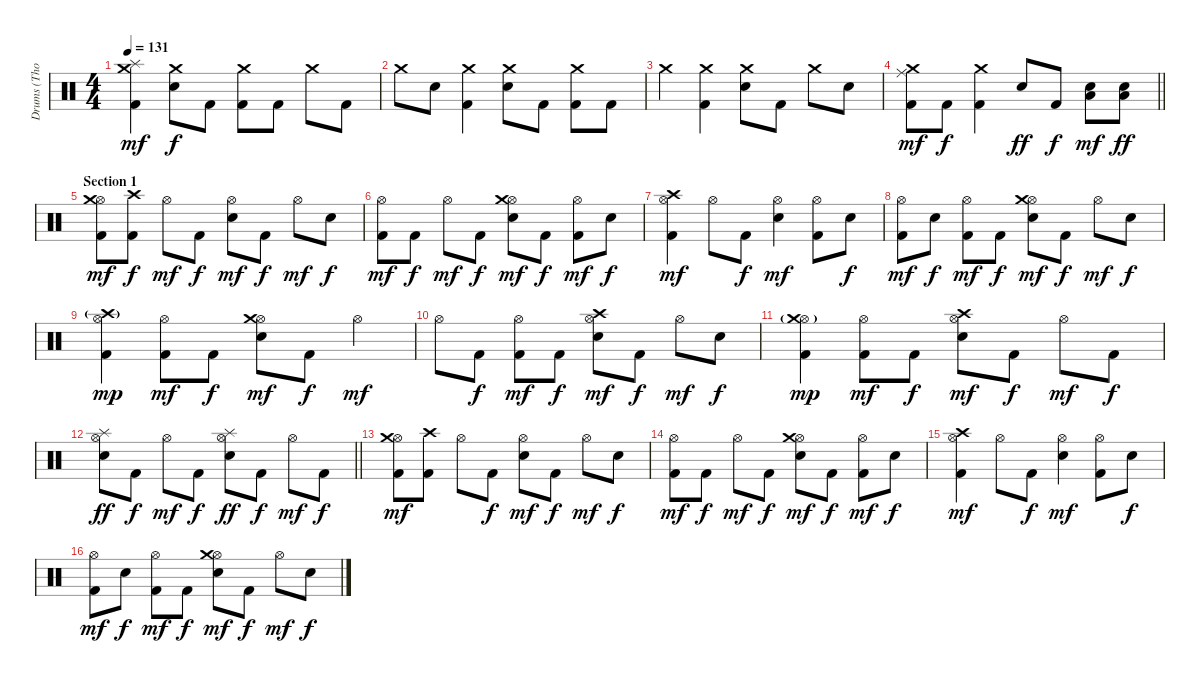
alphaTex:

\track ("Drums (Thomas Haake)" "Drums (Tho") {instrument percussion}
\staff {score}
\articulation defaults
\ts (4 4)
\tempo 131
\clef neutral
\ks c
("Crash medium (hit)" "Splash (hit)" "Kick (hit) 2").4{dy mf} ("Crash medium (hit)" "Electric Snare (hit)").8{dy f} "Kick (hit) 2".8 ("Crash medium (hit)" "Kick (hit) 2").8 "Kick (hit) 2".8 "Crash medium (hit)".8 "Kick (hit) 2".8 |
"Crash medium (hit)".8 "Electric Snare (hit)".8 ("Crash medium (hit)" "Kick (hit) 2").4 ("Crash medium (hit)" "Electric Snare (hit)").8 "Kick (hit) 2".8 ("Crash medium (hit)" "Kick (hit) 2").8 "Kick (hit) 2".8 |
"Crash medium (hit)".4 ("Crash medium (hit)" "Kick (hit) 2").4 ("Crash medium (hit)" "Electric Snare (hit)").8 "Kick (hit) 2".8 "Crash medium (hit)".8 "Electric Snare (hit)".8 |
\barLineRight lightlight
("Crash medium (hit)" "Ride (middle)" "Kick (hit) 2").8{dy mf} "Kick (hit) 2".8{dy f} ("Crash medium (hit)" "Kick (hit) 2").4 "Electric Snare (hit)".8{dy ff} "Kick (hit) 2".8{dy f} ("Low Floor Tom (hit)" "Electric Snare (hit)").8{dy mf} ("Low Floor Tom (hit)" "Electric Snare (hit)").8{dy ff} |
\section ("" "Section 1")
("Hi-Hat (open)" "Crash medium (hit)" "Kick (hit) 2").8{dy mf} ("Crash high (hit)" "Kick (hit) 2").8{dy f} "Hi-Hat (open)".8{dy mf} "Kick (hit) 2".8{dy f} ("Hi-Hat (open)" "Electric Snare (hit)").8{dy mf} "Kick (hit) 2".8{dy f} "Hi-Hat (open)".8{dy mf} "Electric Snare (hit)".8{dy f} |
("Hi-Hat (open)" "Kick (hit) 2").8{dy mf} "Kick (hit) 2".8{dy f} "Hi-Hat (open)".8{dy mf} "Kick (hit) 2".8{dy f} ("Hi-Hat (open)" "Crash medium (hit)" "Electric Snare (hit)").8{dy mf} "Kick (hit) 2".8{dy f} ("Hi-Hat (open)" "Kick (hit) 2").8{dy mf} "Electric Snare (hit)".8{dy f} |
("Hi-Hat (open)" "Crash high (hit)" "Kick (hit) 2").4{dy mf} "Hi-Hat (open)".8 "Kick (hit) 2".8{dy f} ("Hi-Hat (open)" "Electric Snare (hit)").4{dy mf} ("Hi-Hat (open)" "Kick (hit) 2").8 "Electric Snare (hit)".8{dy f} |
("Hi-Hat (open)" "Kick (hit) 2").8{dy mf} "Electric Snare (hit)".8{dy f} ("Hi-Hat (open)" "Kick (hit) 2").8{dy mf} "Kick (hit) 2".8{dy f} ("Hi-Hat (open)" "Crash medium (hit)" "Electric Snare (hit)").8{dy mf} "Kick (hit) 2".8{dy f} "Hi-Hat (open)".8{dy mf} "Electric Snare (hit)".8{dy f} |
("Hi-Hat (open)" "Crash high (hit)"{g} "Kick (hit) 2").4{dy mp} ("Hi-Hat (open)" "Kick (hit) 2").8{dy mf} "Kick (hit) 2".8{dy f} ("Hi-Hat (open)" "Crash medium (hit)" "Electric Snare (hit)").8{dy mf} "Kick (hit) 2".8{dy f} "Hi-Hat (open)".4{dy mf} |
"Hi-Hat (open)".8 "Kick (hit) 2".8{dy f} ("Hi-Hat (open)" "Kick (hit) 2").8{dy mf} "Kick (hit) 2".8{dy f} ("Hi-Hat (open)" "Crash high (hit)" "Electric Snare (hit)").8{dy mf} "Kick (hit) 2".8{dy f} "Hi-Hat (open)".8{dy mf} "Electric Snare (hit)".8{dy f} |
("Hi-Hat (open)" "Crash medium (hit)"{g} "Kick (hit) 2").4{dy mp} ("Hi-Hat (open)" "Kick (hit) 2").8{dy mf} "Kick (hit) 2".8{dy f} ("Hi-Hat (open)" "Crash high (hit)" "Electric Snare (hit)").8{dy mf} "Kick (hit) 2".8{dy f} "Hi-Hat (open)".8{dy mf} "Kick (hit) 2".8{dy f} |
\barLineRight lightlight
("Hi-Hat (open)" "Splash (hit)" "Electric Snare (hit)").8{dy ff} "Kick (hit) 2".8{dy f} "Hi-Hat (open)".8{dy mf} "Kick (hit) 2".8{dy f} ("Hi-Hat (open)" "Splash (hit)" "Electric Snare (hit)").8{dy ff} "Kick (hit) 2".8{dy f} "Hi-Hat (open)".8{dy mf} "Kick (hit) 2".8{dy f} |
("Hi-Hat (open)" "Crash medium (hit)" "Kick (hit) 2").8{dy mf} ("Crash high (hit)" "Kick (hit) 2").8 "Hi-Hat (open)".8 "Kick (hit) 2".8{dy f} ("Hi-Hat (open)" "Electric Snare (hit)").8{dy mf} "Kick (hit) 2".8{dy f} "Hi-Hat (open)".8{dy mf} "Electric Snare (hit)".8{dy f} |
("Hi-Hat (open)" "Kick (hit) 2").8{dy mf} "Kick (hit) 2".8{dy f} "Hi-Hat (open)".8{dy mf} "Kick (hit) 2".8{dy f} ("Hi-Hat (open)" "Crash medium (hit)" "Electric Snare (hit)").8{dy mf} "Kick (hit) 2".8{dy f} ("Hi-Hat (open)" "Kick (hit) 2").8{dy mf} "Electric Snare (hit)".8{dy f} |
("Hi-Hat (open)" "Crash high (hit)" "Kick (hit) 2").4{dy mf} "Hi-Hat (open)".8 "Kick (hit) 2".8{dy f} ("Hi-Hat (open)" "Electric Snare (hit)").4{dy mf} ("Hi-Hat (open)" "Kick (hit) 2").8 "Electric Snare (hit)".8{dy f} |
("Hi-Hat (open)" "Kick (hit) 2").8{dy mf} "Electric Snare (hit)".8{dy f} ("Hi-Hat (open)" "Kick (hit) 2").8{dy mf} "Kick (hit) 2".8{dy f} ("Hi-Hat (open)" "Crash medium (hit)" "Electric Snare (hit)").8{dy mf} "Kick (hit) 2".8{dy f} "Hi-Hat (open)".8{dy mf} "Electric Snare (hit)".8{dy f}
